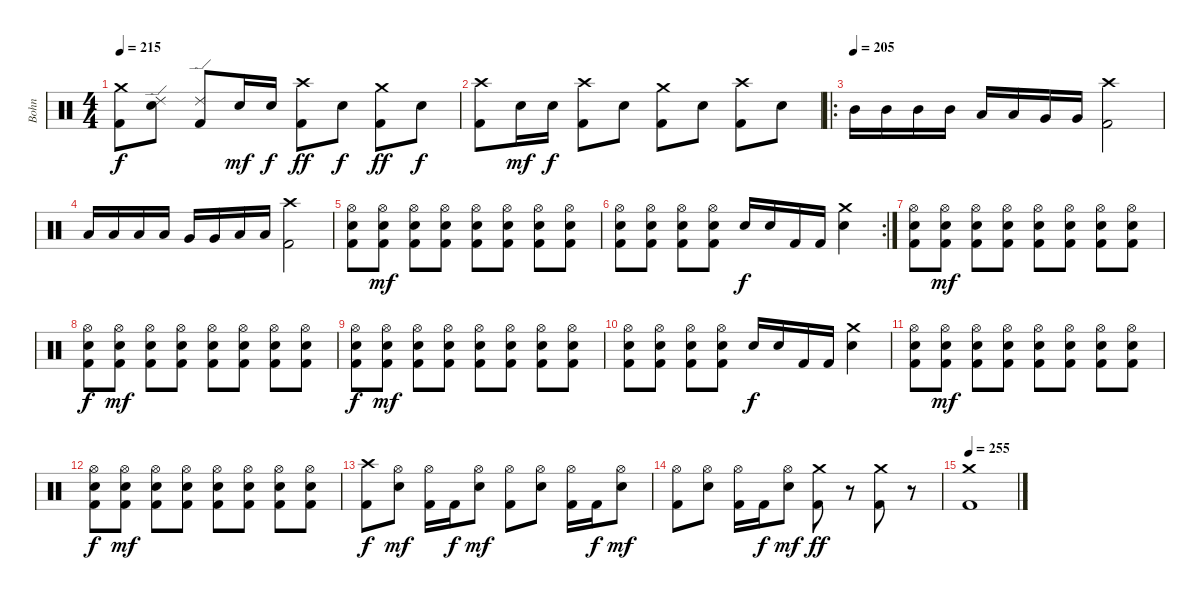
\track ("Bohn" "Bohn") {instrument percussion}
\staff {score}
\articulation defaults
\ts (4 4)
\tempo 215
\clef neutral
\ks c
("Crash medium (hit)" "Kick (hit) 2").8{dy f} ("Ride (edge) 2" "Electric Snare (hit)").8 ("Ride (edge) 2" "Kick (hit) 2").8 "Electric Snare (hit)".16{dy mf} "Electric Snare (hit)".16{dy f} ("Crash high (hit)" "Kick (hit) 2").8{dy ff} "Electric Snare (hit)".8{dy f} ("Crash medium (hit)" "Kick (hit) 2").8{dy ff} "Electric Snare (hit)".8{dy f} |
("Crash high (hit)" "Kick (hit) 2").8 "Electric Snare (hit)".16{dy mf} "Electric Snare (hit)".16{dy f} ("Crash high (hit)" "Kick (hit) 2").8 "Electric Snare (hit)".8 ("Crash medium (hit)" "Kick (hit) 2").8 "Electric Snare (hit)".8 ("Crash high (hit)" "Kick (hit) 2").8 "Electric Snare (hit)".8 |
\ro
\tempo (205)
"Mid Tom (hit)".16 "Mid Tom (hit)".16 "Mid Tom (hit)".16 "Mid Tom (hit)".16 "Low Tom (hit)".16 "Low Tom (hit)".16 "Very Low Tom (hit)".16 "Very Low Tom (hit)".16 ("Crash high (hit)" "Kick (hit) 2").2 |
"Low Tom (hit)".16 "Low Tom (hit)".16 "Low Tom (hit)".16 "Low Tom (hit)".16 "Very Low Tom (hit)".16 "Very Low Tom (hit)".16 "Low Floor Tom (hit)".16 "Low Floor Tom (hit)".16 ("Crash high (hit)" "Kick (hit) 2").2 |
("Hi-Hat (open)" "Electric Snare (hit)" "Kick (hit) 2").8 ("Hi-Hat (open)" "Electric Snare (hit)" "Kick (hit) 2").8{dy mf} ("Hi-Hat (open)" "Electric Snare (hit)" "Kick (hit) 2").8 ("Hi-Hat (open)" "Electric Snare (hit)" "Kick (hit) 2").8 ("Hi-Hat (open)" "Electric Snare (hit)" "Kick (hit) 2").8 ("Hi-Hat (open)" "Electric Snare (hit)" "Kick (hit) 2").8 ("Hi-Hat (open)" "Electric Snare (hit)" "Kick (hit) 2").8 ("Hi-Hat (open)" "Electric Snare (hit)" "Kick (hit) 2").8 |
\rc 2
("Hi-Hat (open)" "Electric Snare (hit)" "Kick (hit) 2").8 ("Hi-Hat (open)" "Electric Snare (hit)" "Kick (hit) 2").8 ("Hi-Hat (open)" "Electric Snare (hit)" "Kick (hit) 2").8 ("Hi-Hat (open)" "Electric Snare (hit)" "Kick (hit) 2").8 "Electric Snare (hit)".16{dy f} "Electric Snare (hit)".16 "Kick (hit) 2".16 "Kick (hit) 2".16 ("Crash medium (hit)" "Electric Snare (hit)").4 |
("Hi-Hat (open)" "Electric Snare (hit)" "Kick (hit) 2").8 ("Hi-Hat (open)" "Electric Snare (hit)" "Kick (hit) 2").8{dy mf} ("Hi-Hat (open)" "Electric Snare (hit)" "Kick (hit) 2").8 ("Hi-Hat (open)" "Electric Snare (hit)" "Kick (hit) 2").8 ("Hi-Hat (open)" "Electric Snare (hit)" "Kick (hit) 2").8 ("Hi-Hat (open)" "Electric Snare (hit)" "Kick (hit) 2").8 ("Hi-Hat (open)" "Electric Snare (hit)" "Kick (hit) 2").8 ("Hi-Hat (open)" "Electric Snare (hit)" "Kick (hit) 2").8 |
("Hi-Hat (open)" "Electric Snare (hit)" "Kick (hit) 2").8{dy f} ("Hi-Hat (open)" "Electric Snare (hit)" "Kick (hit) 2").8{dy mf} ("Hi-Hat (open)" "Electric Snare (hit)" "Kick (hit) 2").8 ("Hi-Hat (open)" "Electric Snare (hit)" "Kick (hit) 2").8 ("Hi-Hat (open)" "Electric Snare (hit)" "Kick (hit) 2").8 ("Hi-Hat (open)" "Electric Snare (hit)" "Kick (hit) 2").8 ("Hi-Hat (open)" "Electric Snare (hit)" "Kick (hit) 2").8 ("Hi-Hat (open)" "Electric Snare (hit)" "Kick (hit) 2").8 |
("Hi-Hat (open)" "Electric Snare (hit)" "Kick (hit) 2").8{dy f} ("Hi-Hat (open)" "Electric Snare (hit)" "Kick (hit) 2").8{dy mf} ("Hi-Hat (open)" "Electric Snare (hit)" "Kick (hit) 2").8 ("Hi-Hat (open)" "Electric Snare (hit)" "Kick (hit) 2").8 ("Hi-Hat (open)" "Electric Snare (hit)" "Kick (hit) 2").8 ("Hi-Hat (open)" "Electric Snare (hit)" "Kick (hit) 2").8 ("Hi-Hat (open)" "Electric Snare (hit)" "Kick (hit) 2").8 ("Hi-Hat (open)" "Electric Snare (hit)" "Kick (hit) 2").8 |
("Hi-Hat (open)" "Electric Snare (hit)" "Kick (hit) 2").8 ("Hi-Hat (open)" "Electric Snare (hit)" "Kick (hit) 2").8 ("Hi-Hat (open)" "Electric Snare (hit)" "Kick (hit) 2").8 ("Hi-Hat (open)" "Electric Snare (hit)" "Kick (hit) 2").8 "Electric Snare (hit)".16{dy f} "Electric Snare (hit)".16 "Kick (hit) 2".16 "Kick (hit) 2".16 ("Crash medium (hit)" "Electric Snare (hit)").4 |
("Hi-Hat (open)" "Electric Snare (hit)" "Kick (hit) 2").8 ("Hi-Hat (open)" "Electric Snare (hit)" "Kick (hit) 2").8{dy mf} ("Hi-Hat (open)" "Electric Snare (hit)" "Kick (hit) 2").8 ("Hi-Hat (open)" "Electric Snare (hit)" "Kick (hit) 2").8 ("Hi-Hat (open)" "Electric Snare (hit)" "Kick (hit) 2").8 ("Hi-Hat (open)" "Electric Snare (hit)" "Kick (hit) 2").8 ("Hi-Hat (open)" "Electric Snare (hit)" "Kick (hit) 2").8 ("Hi-Hat (open)" "Electric Snare (hit)" "Kick (hit) 2").8 |
("Hi-Hat (open)" "Electric Snare (hit)" "Kick (hit) 2").8{dy f} ("Hi-Hat (open)" "Electric Snare (hit)" "Kick (hit) 2").8{dy mf} ("Hi-Hat (open)" "Electric Snare (hit)" "Kick (hit) 2").8 ("Hi-Hat (open)" "Electric Snare (hit)" "Kick (hit) 2").8 ("Hi-Hat (open)" "Electric Snare (hit)" "Kick (hit) 2").8 ("Hi-Hat (open)" "Electric Snare (hit)" "Kick (hit) 2").8 ("Hi-Hat (open)" "Electric Snare (hit)" "Kick (hit) 2").8 ("Hi-Hat (open)" "Electric Snare (hit)" "Kick (hit) 2").8 |
("Crash high (hit)" "Kick (hit) 2").8{dy f} ("Hi-Hat (open)" "Electric Snare (hit)").8{dy mf} ("Hi-Hat (open)" "Kick (hit) 2").16 "Kick (hit) 2".16{dy f} ("Hi-Hat (open)" "Electric Snare (hit)").8{dy mf} ("Hi-Hat (open)" "Kick (hit) 2").8 ("Hi-Hat (open)" "Electric Snare (hit)").8 ("Hi-Hat (open)" "Kick (hit) 2").16 "Kick (hit) 2".16{dy f} ("Hi-Hat (open)" "Electric Snare (hit)").8{dy mf} |
("Hi-Hat (open)" "Kick (hit) 2").8 ("Hi-Hat (open)" "Electric Snare (hit)").8 ("Hi-Hat (open)" "Kick (hit) 2").16 "Kick (hit) 2".16{dy f} ("Hi-Hat (open)" "Electric Snare (hit)").8{dy mf} ("Crash medium (hit)" "Kick (hit) 2").8{dy ff} r.8{volume 0} ("Crash medium (hit)" "Kick (hit) 2").8{volume 13} r.8{volume 0} |
\tempo 255
("Crash medium (hit)" "Kick (hit) 2").1{volume 13}
